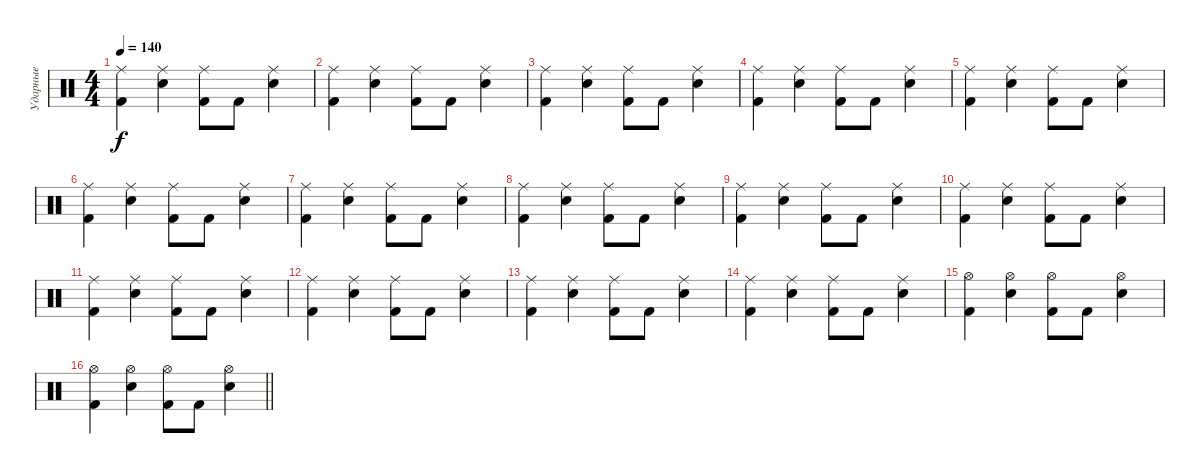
\track ("Ударные" "Ударные") {instrument percussion}
\staff {score}
\articulation defaults
\ts (4 4)
\tempo 140
\clef neutral
\ks c
("Ride (middle)" "Kick (hit) 2").4{dy f} ("Ride (middle)" "Electric Snare (hit)").4 ("Ride (middle)" "Kick (hit) 2").8 "Kick (hit) 2".8 ("Ride (middle)" "Electric Snare (hit)").4 |
("Ride (middle)" "Kick (hit) 2").4 ("Ride (middle)" "Electric Snare (hit)").4 ("Ride (middle)" "Kick (hit) 2").8 "Kick (hit) 2".8 ("Ride (middle)" "Electric Snare (hit)").4 |
("Ride (middle)" "Kick (hit) 2").4 ("Ride (middle)" "Electric Snare (hit)").4 ("Ride (middle)" "Kick (hit) 2").8 "Kick (hit) 2".8 ("Ride (middle)" "Electric Snare (hit)").4 |
("Ride (middle)" "Kick (hit) 2").4 ("Ride (middle)" "Electric Snare (hit)").4 ("Ride (middle)" "Kick (hit) 2").8 "Kick (hit) 2".8 ("Ride (middle)" "Electric Snare (hit)").4 |
("Ride (middle)" "Kick (hit) 2").4 ("Ride (middle)" "Electric Snare (hit)").4 ("Ride (middle)" "Kick (hit) 2").8 "Kick (hit) 2".8 ("Ride (middle)" "Electric Snare (hit)").4 |
("Ride (middle)" "Kick (hit) 2").4 ("Ride (middle)" "Electric Snare (hit)").4 ("Ride (middle)" "Kick (hit) 2").8 "Kick (hit) 2".8 ("Ride (middle)" "Electric Snare (hit)").4 |
("Ride (middle)" "Kick (hit) 2").4 ("Ride (middle)" "Electric Snare (hit)").4 ("Ride (middle)" "Kick (hit) 2").8 "Kick (hit) 2".8 ("Ride (middle)" "Electric Snare (hit)").4 |
("Ride (middle)" "Kick (hit) 2").4 ("Ride (middle)" "Electric Snare (hit)").4 ("Ride (middle)" "Kick (hit) 2").8 "Kick (hit) 2".8 ("Ride (middle)" "Electric Snare (hit)").4 |
("Ride (middle)" "Kick (hit) 2").4 ("Ride (middle)" "Electric Snare (hit)").4 ("Ride (middle)" "Kick (hit) 2").8 "Kick (hit) 2".8 ("Ride (middle)" "Electric Snare (hit)").4 |
("Ride (middle)" "Kick (hit) 2").4 ("Ride (middle)" "Electric Snare (hit)").4 ("Ride (middle)" "Kick (hit) 2").8 "Kick (hit) 2".8 ("Ride (middle)" "Electric Snare (hit)").4 |
("Ride (middle)" "Kick (hit) 2").4 ("Ride (middle)" "Electric Snare (hit)").4 ("Ride (middle)" "Kick (hit) 2").8 "Kick (hit) 2".8 ("Ride (middle)" "Electric Snare (hit)").4 |
("Ride (middle)" "Kick (hit) 2").4 ("Ride (middle)" "Electric Snare (hit)").4 ("Ride (middle)" "Kick (hit) 2").8 "Kick (hit) 2".8 ("Ride (middle)" "Electric Snare (hit)").4 |
("Ride (middle)" "Kick (hit) 2").4 ("Ride (middle)" "Electric Snare (hit)").4 ("Ride (middle)" "Kick (hit) 2").8 "Kick (hit) 2".8 ("Ride (middle)" "Electric Snare (hit)").4 |
("Ride (middle)" "Kick (hit) 2").4 ("Ride (middle)" "Electric Snare (hit)").4 ("Ride (middle)" "Kick (hit) 2").8 "Kick (hit) 2".8 ("Ride (middle)" "Electric Snare (hit)").4 |
("Hi-Hat (open)" "Kick (hit) 2").4 ("Hi-Hat (open)" "Electric Snare (hit)").4 ("Hi-Hat (open)" "Kick (hit) 2").8 "Kick (hit) 2".8 ("Hi-Hat (open)" "Electric Snare (hit)").4 |
\barLineRight lightlight
("Hi-Hat (open)" "Kick (hit) 2").4 ("Hi-Hat (open)" "Electric Snare (hit)").4 ("Hi-Hat (open)" "Kick (hit) 2").8 "Kick (hit) 2".8 ("Hi-Hat (open)" "Electric Snare (hit)").4
